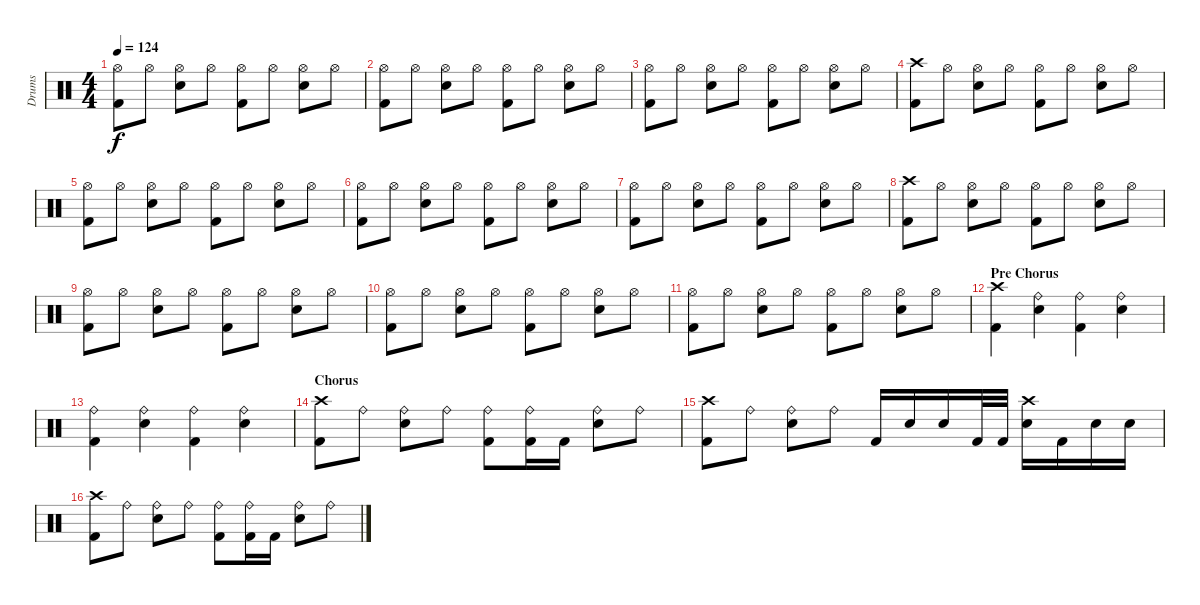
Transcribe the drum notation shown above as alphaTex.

\track ("Drums" "Drums") {instrument percussion}
\staff {score}
\articulation defaults
\ts (4 4)
\tempo 124
\clef neutral
\ks c
("Hi-Hat (open)" "Kick (hit) 2").8{dy f} "Hi-Hat (open)".8 ("Hi-Hat (open)" "Electric Snare (hit)").8 "Hi-Hat (open)".8 ("Hi-Hat (open)" "Kick (hit) 2").8 "Hi-Hat (open)".8 ("Hi-Hat (open)" "Electric Snare (hit)").8 "Hi-Hat (open)".8 |
("Hi-Hat (open)" "Kick (hit) 2").8 "Hi-Hat (open)".8 ("Hi-Hat (open)" "Electric Snare (hit)").8 "Hi-Hat (open)".8 ("Hi-Hat (open)" "Kick (hit) 2").8 "Hi-Hat (open)".8 ("Hi-Hat (open)" "Electric Snare (hit)").8 "Hi-Hat (open)".8 |
("Hi-Hat (open)" "Kick (hit) 2").8 "Hi-Hat (open)".8 ("Hi-Hat (open)" "Electric Snare (hit)").8 "Hi-Hat (open)".8 ("Hi-Hat (open)" "Kick (hit) 2").8 "Hi-Hat (open)".8 ("Hi-Hat (open)" "Electric Snare (hit)").8 "Hi-Hat (open)".8 |
("Crash high (hit)" "Kick (hit) 2").8 "Hi-Hat (open)".8 ("Hi-Hat (open)" "Electric Snare (hit)").8 "Hi-Hat (open)".8 ("Hi-Hat (open)" "Kick (hit) 2").8 "Hi-Hat (open)".8 ("Hi-Hat (open)" "Electric Snare (hit)").8 "Hi-Hat (open)".8 |
("Hi-Hat (open)" "Kick (hit) 2").8 "Hi-Hat (open)".8 ("Hi-Hat (open)" "Electric Snare (hit)").8 "Hi-Hat (open)".8 ("Hi-Hat (open)" "Kick (hit) 2").8 "Hi-Hat (open)".8 ("Hi-Hat (open)" "Electric Snare (hit)").8 "Hi-Hat (open)".8 |
("Hi-Hat (open)" "Kick (hit) 2").8 "Hi-Hat (open)".8 ("Hi-Hat (open)" "Electric Snare (hit)").8 "Hi-Hat (open)".8 ("Hi-Hat (open)" "Kick (hit) 2").8 "Hi-Hat (open)".8 ("Hi-Hat (open)" "Electric Snare (hit)").8 "Hi-Hat (open)".8 |
("Hi-Hat (open)" "Kick (hit) 2").8 "Hi-Hat (open)".8 ("Hi-Hat (open)" "Electric Snare (hit)").8 "Hi-Hat (open)".8 ("Hi-Hat (open)" "Kick (hit) 2").8 "Hi-Hat (open)".8 ("Hi-Hat (open)" "Electric Snare (hit)").8 "Hi-Hat (open)".8 |
("Crash high (hit)" "Kick (hit) 2").8 "Hi-Hat (open)".8 ("Hi-Hat (open)" "Electric Snare (hit)").8 "Hi-Hat (open)".8 ("Hi-Hat (open)" "Kick (hit) 2").8 "Hi-Hat (open)".8 ("Hi-Hat (open)" "Electric Snare (hit)").8 "Hi-Hat (open)".8 |
("Hi-Hat (open)" "Kick (hit) 2").8 "Hi-Hat (open)".8 ("Hi-Hat (open)" "Electric Snare (hit)").8 "Hi-Hat (open)".8 ("Hi-Hat (open)" "Kick (hit) 2").8 "Hi-Hat (open)".8 ("Hi-Hat (open)" "Electric Snare (hit)").8 "Hi-Hat (open)".8 |
("Hi-Hat (open)" "Kick (hit) 2").8 "Hi-Hat (open)".8 ("Hi-Hat (open)" "Electric Snare (hit)").8 "Hi-Hat (open)".8 ("Hi-Hat (open)" "Kick (hit) 2").8 "Hi-Hat (open)".8 ("Hi-Hat (open)" "Electric Snare (hit)").8 "Hi-Hat (open)".8 |
("Hi-Hat (open)" "Kick (hit) 2").8 "Hi-Hat (open)".8 ("Hi-Hat (open)" "Electric Snare (hit)").8 "Hi-Hat (open)".8 ("Hi-Hat (open)" "Kick (hit) 2").8 "Hi-Hat (open)".8 ("Hi-Hat (open)" "Electric Snare (hit)").8 "Hi-Hat (open)".8 |
\section ("" "Pre Chorus")
("Crash high (hit)" "Kick (hit) 2").4 ("Ride (bell)" "Electric Snare (hit)").4 ("Ride (bell)" "Kick (hit) 2").4 ("Ride (bell)" "Electric Snare (hit)").4 |
("Ride (bell)" "Kick (hit) 2").4 ("Ride (bell)" "Electric Snare (hit)").4 ("Ride (bell)" "Kick (hit) 2").4 ("Ride (bell)" "Electric Snare (hit)").4 |
\section ("" "Chorus")
("Crash high (hit)" "Kick (hit) 2").8 "Ride (bell)".8 ("Ride (bell)" "Electric Snare (hit)").8 "Ride (bell)".8 ("Ride (bell)" "Kick (hit) 2").8 ("Ride (bell)" "Kick (hit) 2").16 "Kick (hit) 2".16 ("Ride (bell)" "Electric Snare (hit)").8 "Ride (bell)".8 |
("Crash high (hit)" "Kick (hit) 2").8 "Ride (bell)".8 ("Ride (bell)" "Electric Snare (hit)").8 "Ride (bell)".8 "Kick (hit) 2".16 "Electric Snare (hit)".16 "Electric Snare (hit)".16 "Kick (hit) 2".32 "Kick (hit) 2".32 ("Crash high (hit)" "Electric Snare (hit)").16 "Kick (hit) 2".16 "Electric Snare (hit)".16 "Electric Snare (hit)".16 |
("Crash high (hit)" "Kick (hit) 2").8 "Ride (bell)".8 ("Ride (bell)" "Electric Snare (hit)").8 "Ride (bell)".8 ("Ride (bell)" "Kick (hit) 2").8 ("Ride (bell)" "Kick (hit) 2").16 "Kick (hit) 2".16 ("Ride (bell)" "Electric Snare (hit)").8 "Ride (bell)".8
